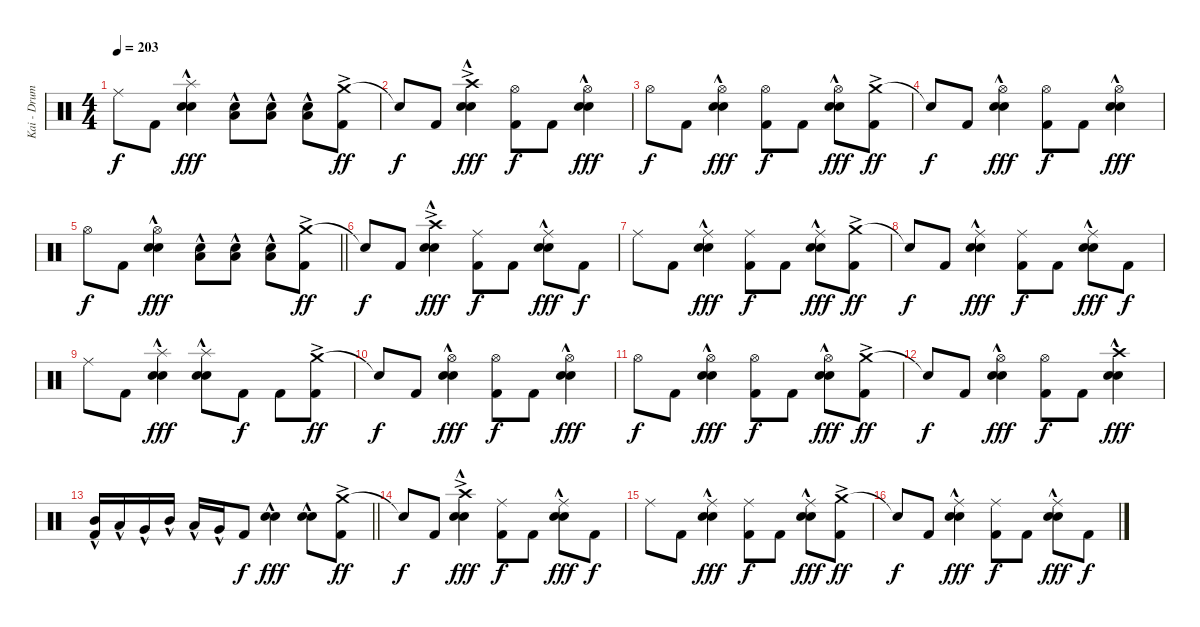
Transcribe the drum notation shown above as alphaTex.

\track ("Kai - Drums" "Kai - Drum") {instrument percussion}
\staff {score}
\articulation defaults
\ts (4 4)
\tempo 203
\clef neutral
\ks c "Ride (middle)".8{dy f} "Kick (hit) 2".8
("Splash (hit)"{hac} "Electric Snare (hit)"{hac} "Snare (hit) 2"{hac}).4{dy fff} ("Electric Snare (hit)"{hac} "Low Tom (hit)"{hac}).8 ("Electric Snare (hit)"{hac} "Low Tom (hit)"{hac}).8 ("Electric Snare (hit)"{hac} "Low Tom (hit)"{hac}).8 ("Crash medium (hit)"{ac} "Kick (hit) 2").8{dy ff} |
"Snare (hit)"{t}.8{dy f} "Kick (hit) 2".8 ("Crash high (hit)"{ac} "Electric Snare (hit)"{hac} "Snare (hit) 2"{hac}).4{dy fff} ("Hi-Hat (open)" "Kick (hit) 2").8{dy f} "Kick (hit) 2".8 ("Hi-Hat (open)" "Electric Snare (hit)"{hac} "Snare (hit) 2"{hac}).4{dy fff} |
"Hi-Hat (open)".8{dy f} "Kick (hit) 2".8 ("Hi-Hat (open)" "Electric Snare (hit)"{hac} "Snare (hit) 2"{hac}).4{dy fff} ("Hi-Hat (open)" "Kick (hit) 2").8{dy f} "Kick (hit) 2".8 ("Hi-Hat (open)" "Electric Snare (hit)"{hac} "Snare (hit) 2"{hac}).8{dy fff} ("Crash medium (hit)"{ac} "Kick (hit) 2").8{dy ff} |
"Snare (hit)"{t}.8{dy f} "Kick (hit) 2".8 ("Hi-Hat (open)" "Electric Snare (hit)"{hac} "Snare (hit) 2"{hac}).4{dy fff} ("Hi-Hat (open)" "Kick (hit) 2").8{dy f} "Kick (hit) 2".8 ("Hi-Hat (open)" "Electric Snare (hit)"{hac} "Snare (hit) 2"{hac}).4{dy fff} |
\barLineRight lightlight "Hi-Hat (open)".8{dy f} "Kick (hit) 2".8
("Hi-Hat (open)" "Electric Snare (hit)"{hac} "Snare (hit) 2"{hac}).4{dy fff} ("Electric Snare (hit)"{hac} "Low Tom (hit)"{hac}).8 ("Electric Snare (hit)"{hac} "Low Tom (hit)"{hac}).8 ("Electric Snare (hit)"{hac} "Low Tom (hit)"{hac}).8 ("Crash medium (hit)"{ac} "Kick (hit) 2").8{dy ff} |
\section ("" "")
"Snare (hit)"{t}.8{dy f} "Kick (hit) 2".8 ("Crash high (hit)"{ac} "Electric Snare (hit)"{hac} "Snare (hit) 2"{hac}).4{dy fff} ("Ride (middle)" "Kick (hit) 2").8{dy f} "Kick (hit) 2".8 ("Ride (middle)" "Electric Snare (hit)"{hac} "Snare (hit) 2"{hac}).8{dy fff} "Kick (hit) 2".8{dy f} |
"Ride (middle)".8 "Kick (hit) 2".8 ("Ride (middle)" "Electric Snare (hit)"{hac} "Snare (hit) 2"{hac}).4{dy fff} ("Ride (middle)" "Kick (hit) 2").8{dy f} "Kick (hit) 2".8 ("Ride (middle)" "Electric Snare (hit)"{hac} "Snare (hit) 2"{hac}).8{dy fff} ("Crash medium (hit)"{ac} "Kick (hit) 2").8{dy ff} |
"Snare (hit)"{t}.8{dy f} "Kick (hit) 2".8 ("Ride (middle)" "Electric Snare (hit)"{hac} "Snare (hit) 2"{hac}).4{dy fff} ("Ride (middle)" "Kick (hit) 2").8{dy f} "Kick (hit) 2".8 ("Ride (middle)" "Electric Snare (hit)"{hac} "Snare (hit) 2"{hac}).8{dy fff} "Kick (hit) 2".8{dy f} |
"Ride (middle)".8 "Kick (hit) 2".8 ("Splash (hit)"{hac} "Electric Snare (hit)"{hac} "Snare (hit) 2"{hac}).4{dy fff} ("Splash (hit)"{hac} "Electric Snare (hit)"{hac} "Snare (hit) 2"{hac}).8 "Kick (hit) 2".8{dy f} "Kick (hit) 2".8 ("Crash medium (hit)"{ac} "Kick (hit) 2").8{dy ff} |
"Snare (hit)"{t}.8{dy f} "Kick (hit) 2".8 ("Hi-Hat (open)" "Electric Snare (hit)"{hac} "Snare (hit) 2"{hac}).4{dy fff} ("Hi-Hat (open)" "Kick (hit) 2").8{dy f} "Kick (hit) 2".8 ("Hi-Hat (open)" "Electric Snare (hit)"{hac} "Snare (hit) 2"{hac}).4{dy fff} |
"Hi-Hat (open)".8{dy f} "Kick (hit) 2".8 ("Hi-Hat (open)" "Electric Snare (hit)"{hac} "Snare (hit) 2"{hac}).4{dy fff} ("Hi-Hat (open)" "Kick (hit) 2").8{dy f} "Kick (hit) 2".8 ("Hi-Hat (open)" "Electric Snare (hit)"{hac} "Snare (hit) 2"{hac}).8{dy fff} ("Crash medium (hit)"{ac} "Kick (hit) 2").8{dy ff} |
"Snare (hit)"{t}.8{dy f} "Kick (hit) 2".8 ("Hi-Hat (open)" "Electric Snare (hit)"{hac} "Snare (hit) 2"{hac}).4{dy fff} ("Hi-Hat (open)" "Kick (hit) 2").8{dy f} "Kick (hit) 2".8 ("Crash high (hit)" "Electric Snare (hit)"{hac} "Snare (hit) 2"{hac}).4{dy fff} |
\barLineRight lightlight
("Mid Tom (hit)"{hac} "Kick (hit) 2").16 "Low Tom (hit)"{hac}.16 "Very Low Tom (hit)"{hac}.16 "Mid Tom (hit)"{hac}.16 "Low Tom (hit)"{hac}.16 "Very Low Tom (hit)"{hac}.16 "Kick (hit) 2".8{dy f} ("Electric Snare (hit)" "Snare (hit) 2"{hac}).4{dy fff} ("Electric Snare (hit)" "Snare (hit) 2"{hac}).8 ("Crash medium (hit)"{ac} "Kick (hit) 2").8{dy ff} |
\section ("" "")
"Snare (hit)"{t}.8{dy f} "Kick (hit) 2".8 ("Crash high (hit)"{ac} "Electric Snare (hit)"{hac} "Snare (hit) 2"{hac}).4{dy fff} ("Ride (middle)" "Kick (hit) 2").8{dy f} "Kick (hit) 2".8 ("Ride (middle)" "Electric Snare (hit)"{hac} "Snare (hit) 2"{hac}).8{dy fff} "Kick (hit) 2".8{dy f} |
"Ride (middle)".8 "Kick (hit) 2".8 ("Ride (middle)" "Electric Snare (hit)"{hac} "Snare (hit) 2"{hac}).4{dy fff} ("Ride (middle)" "Kick (hit) 2").8{dy f} "Kick (hit) 2".8 ("Ride (middle)" "Electric Snare (hit)"{hac} "Snare (hit) 2"{hac}).8{dy fff} ("Crash medium (hit)"{ac} "Kick (hit) 2").8{dy ff} |
"Snare (hit)"{t}.8{dy f} "Kick (hit) 2".8 ("Ride (middle)" "Electric Snare (hit)"{hac} "Snare (hit) 2"{hac}).4{dy fff} ("Ride (middle)" "Kick (hit) 2").8{dy f} "Kick (hit) 2".8 ("Ride (middle)" "Electric Snare (hit)"{hac} "Snare (hit) 2"{hac}).8{dy fff} "Kick (hit) 2".8{dy f}
